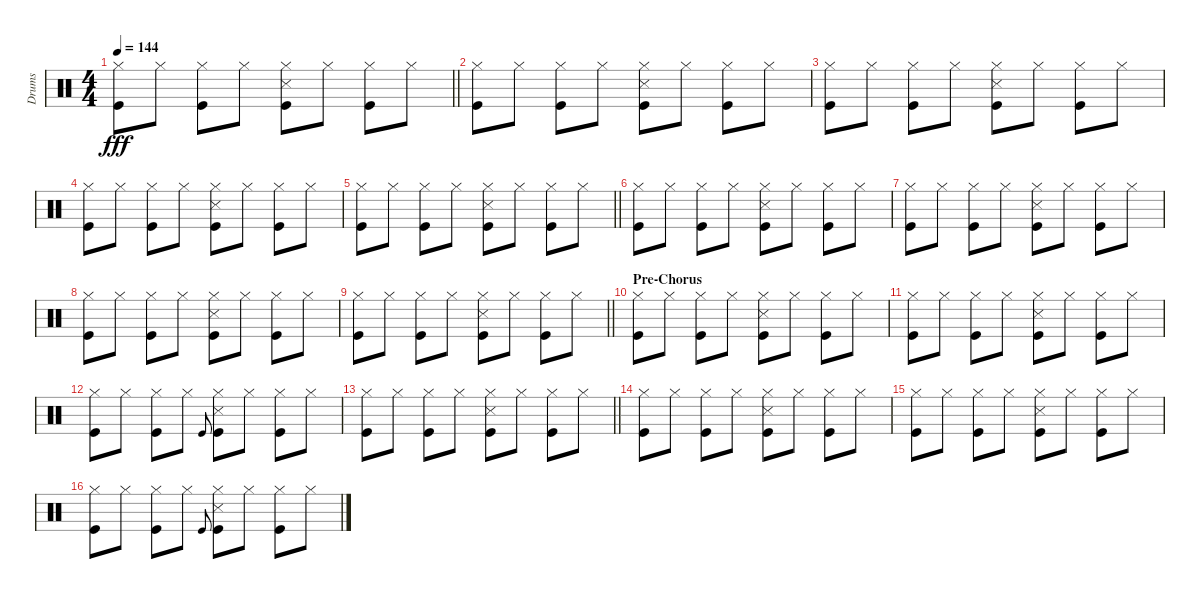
\track ("Drums" "Drums") {instrument percussion}
\staff {score}
\articulation defaults
\ts (4 4)
\tempo 144
\clef neutral
\barLineRight lightlight
\ks c
("Hi-Hat (closed)" "Kick (hit)").8{dy fff} "Hi-Hat (closed)".8 ("Hi-Hat (closed)" "Kick (hit)").8 "Hi-Hat (closed)".8 ("Hi-Hat (closed)" "Kick (hit)" "Snare (side stick) 3").8 "Hi-Hat (closed)".8 ("Hi-Hat (closed)" "Kick (hit)").8 "Hi-Hat (closed)".8 |
("Hi-Hat (closed)" "Kick (hit)").8 "Hi-Hat (closed)".8 ("Hi-Hat (closed)" "Kick (hit)").8 "Hi-Hat (closed)".8 ("Hi-Hat (closed)" "Kick (hit)" "Snare (side stick) 3").8 "Hi-Hat (closed)".8 ("Hi-Hat (closed)" "Kick (hit)").8 "Hi-Hat (closed)".8 |
("Hi-Hat (closed)" "Kick (hit)").8 "Hi-Hat (closed)".8 ("Hi-Hat (closed)" "Kick (hit)").8 "Hi-Hat (closed)".8 ("Kick (hit)" "Hi-Hat (closed)" "Snare (side stick) 3").8 "Hi-Hat (closed)".8 ("Hi-Hat (closed)" "Kick (hit)").8 "Hi-Hat (closed)".8 |
("Hi-Hat (closed)" "Kick (hit)").8 "Hi-Hat (closed)".8 ("Hi-Hat (closed)" "Kick (hit)").8 "Hi-Hat (closed)".8 ("Hi-Hat (closed)" "Kick (hit)" "Snare (side stick) 3").8 "Hi-Hat (closed)".8 ("Hi-Hat (closed)" "Kick (hit)").8 "Hi-Hat (closed)".8 |
\barLineRight lightlight
("Hi-Hat (closed)" "Kick (hit)").8 "Hi-Hat (closed)".8 ("Hi-Hat (closed)" "Kick (hit)").8 "Hi-Hat (closed)".8 ("Hi-Hat (closed)" "Kick (hit)" "Snare (side stick) 3").8 "Hi-Hat (closed)".8 ("Hi-Hat (closed)" "Kick (hit)").8 "Hi-Hat (closed)".8 |
("Hi-Hat (closed)" "Kick (hit)").8 "Hi-Hat (closed)".8 ("Hi-Hat (closed)" "Kick (hit)").8 "Hi-Hat (closed)".8 ("Hi-Hat (closed)" "Kick (hit)" "Snare (side stick) 3").8 "Hi-Hat (closed)".8 ("Hi-Hat (closed)" "Kick (hit)").8 "Hi-Hat (closed)".8 |
("Hi-Hat (closed)" "Kick (hit)").8 "Hi-Hat (closed)".8 ("Hi-Hat (closed)" "Kick (hit)").8 "Hi-Hat (closed)".8 ("Kick (hit)" "Hi-Hat (closed)" "Snare (side stick) 3").8 "Hi-Hat (closed)".8 ("Hi-Hat (closed)" "Kick (hit)").8 "Hi-Hat (closed)".8 |
("Hi-Hat (closed)" "Kick (hit)").8 "Hi-Hat (closed)".8 ("Hi-Hat (closed)" "Kick (hit)").8 "Hi-Hat (closed)".8 ("Hi-Hat (closed)" "Kick (hit)" "Snare (side stick) 3").8 "Hi-Hat (closed)".8 ("Hi-Hat (closed)" "Kick (hit)").8 "Hi-Hat (closed)".8 |
\barLineRight lightlight
("Hi-Hat (closed)" "Kick (hit)").8 "Hi-Hat (closed)".8 ("Hi-Hat (closed)" "Kick (hit)").8 "Hi-Hat (closed)".8 ("Hi-Hat (closed)" "Kick (hit)" "Snare (side stick) 3").8 "Hi-Hat (closed)".8 ("Hi-Hat (closed)" "Kick (hit)").8 "Hi-Hat (closed)".8 |
\section ("" "Pre-Chorus")
("Hi-Hat (closed)" "Kick (hit)").8 "Hi-Hat (closed)".8 ("Hi-Hat (closed)" "Kick (hit)").8 "Hi-Hat (closed)".8 ("Hi-Hat (closed)" "Kick (hit)" "Snare (side stick) 3").8 "Hi-Hat (closed)".8 ("Hi-Hat (closed)" "Kick (hit)").8 "Hi-Hat (closed)".8 |
("Hi-Hat (closed)" "Kick (hit)").8 "Hi-Hat (closed)".8 ("Hi-Hat (closed)" "Kick (hit)").8 "Hi-Hat (closed)".8 ("Hi-Hat (closed)" "Kick (hit)" "Snare (side stick) 3").8 "Hi-Hat (closed)".8 ("Hi-Hat (closed)" "Kick (hit)").8 "Hi-Hat (closed)".8 |
("Hi-Hat (closed)" "Kick (hit)").8 "Hi-Hat (closed)".8 ("Hi-Hat (closed)" "Kick (hit)").8 "Hi-Hat (closed)".8 "Kick (hit)".8{gr onbeat} ("Hi-Hat (closed)" "Kick (hit)" "Snare (side stick) 3").8 "Hi-Hat (closed)".8 ("Hi-Hat (closed)" "Kick (hit)").8 "Hi-Hat (closed)".8 |
\barLineRight lightlight
("Hi-Hat (closed)" "Kick (hit)").8 "Hi-Hat (closed)".8 ("Hi-Hat (closed)" "Kick (hit)").8 "Hi-Hat (closed)".8 ("Hi-Hat (closed)" "Kick (hit)" "Snare (side stick) 3").8 "Hi-Hat (closed)".8 ("Hi-Hat (closed)" "Kick (hit)").8 "Hi-Hat (closed)".8 |
("Hi-Hat (closed)" "Kick (hit)").8 "Hi-Hat (closed)".8 ("Hi-Hat (closed)" "Kick (hit)").8 "Hi-Hat (closed)".8 ("Hi-Hat (closed)" "Kick (hit)" "Snare (side stick) 3").8 "Hi-Hat (closed)".8 ("Hi-Hat (closed)" "Kick (hit)").8 "Hi-Hat (closed)".8 |
("Hi-Hat (closed)" "Kick (hit)").8 "Hi-Hat (closed)".8 ("Hi-Hat (closed)" "Kick (hit)").8 "Hi-Hat (closed)".8 ("Hi-Hat (closed)" "Kick (hit)" "Snare (side stick) 3").8 "Hi-Hat (closed)".8 ("Hi-Hat (closed)" "Kick (hit)").8 "Hi-Hat (closed)".8 |
("Hi-Hat (closed)" "Kick (hit)").8 "Hi-Hat (closed)".8 ("Hi-Hat (closed)" "Kick (hit)").8 "Hi-Hat (closed)".8 "Kick (hit)".8{gr onbeat} ("Hi-Hat (closed)" "Kick (hit)" "Snare (side stick) 3").8 "Hi-Hat (closed)".8 ("Hi-Hat (closed)" "Kick (hit)").8 "Hi-Hat (closed)".8
